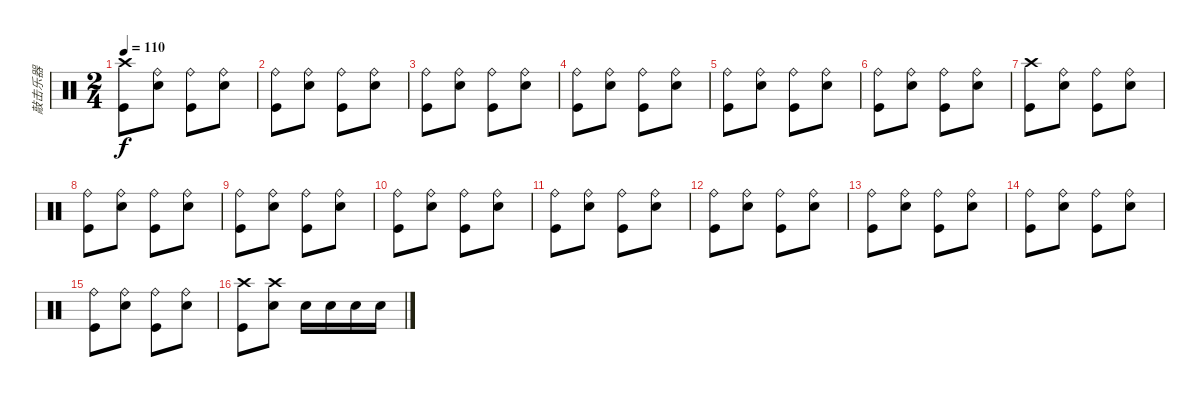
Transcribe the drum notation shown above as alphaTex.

\track ("敲击乐器" "敲击乐器") {instrument percussion}
\staff {score}
\articulation defaults
\ts (2 4)
\tempo 110
\clef neutral
\ks c
("Crash high (hit)" "Kick (hit)").8{dy f} ("Ride (bell)" "Snare (hit) 2").8 ("Ride (bell)" "Kick (hit)").8 ("Ride (bell)" "Snare (hit) 2").8 |
("Ride (bell)" "Kick (hit)").8 ("Ride (bell)" "Snare (hit) 2").8 ("Ride (bell)" "Kick (hit)").8 ("Ride (bell)" "Snare (hit) 2").8 |
("Ride (bell)" "Kick (hit)").8 ("Ride (bell)" "Snare (hit) 2").8 ("Ride (bell)" "Kick (hit)").8 ("Ride (bell)" "Snare (hit) 2").8 |
("Ride (bell)" "Kick (hit)").8 ("Ride (bell)" "Snare (hit) 2").8 ("Ride (bell)" "Kick (hit)").8 ("Ride (bell)" "Snare (hit) 2").8 |
("Ride (bell)" "Kick (hit)").8 ("Ride (bell)" "Snare (hit) 2").8 ("Ride (bell)" "Kick (hit)").8 ("Ride (bell)" "Snare (hit) 2").8 |
("Ride (bell)" "Kick (hit)").8 ("Ride (bell)" "Snare (hit) 2").8 ("Ride (bell)" "Kick (hit)").8 ("Ride (bell)" "Snare (hit) 2").8 |
("Crash high (hit)" "Kick (hit)").8 ("Ride (bell)" "Snare (hit) 2").8 ("Ride (bell)" "Kick (hit)").8 ("Ride (bell)" "Snare (hit) 2").8 |
("Ride (bell)" "Kick (hit)").8 ("Ride (bell)" "Snare (hit) 2").8 ("Ride (bell)" "Kick (hit)").8 ("Ride (bell)" "Snare (hit) 2").8 |
("Ride (bell)" "Kick (hit)").8 ("Ride (bell)" "Snare (hit) 2").8 ("Ride (bell)" "Kick (hit)").8 ("Ride (bell)" "Snare (hit) 2").8 |
("Ride (bell)" "Kick (hit)").8 ("Ride (bell)" "Snare (hit) 2").8 ("Ride (bell)" "Kick (hit)").8 ("Ride (bell)" "Snare (hit) 2").8 |
("Ride (bell)" "Kick (hit)").8 ("Ride (bell)" "Snare (hit) 2").8 ("Ride (bell)" "Kick (hit)").8 ("Ride (bell)" "Snare (hit) 2").8 |
("Ride (bell)" "Kick (hit)").8 ("Ride (bell)" "Snare (hit) 2").8 ("Ride (bell)" "Kick (hit)").8 ("Ride (bell)" "Snare (hit) 2").8 |
("Ride (bell)" "Kick (hit)").8 ("Ride (bell)" "Snare (hit) 2").8 ("Ride (bell)" "Kick (hit)").8 ("Ride (bell)" "Snare (hit) 2").8 |
("Ride (bell)" "Kick (hit)").8 ("Ride (bell)" "Snare (hit) 2").8 ("Ride (bell)" "Kick (hit)").8 ("Ride (bell)" "Snare (hit) 2").8 |
("Ride (bell)" "Kick (hit)").8 ("Ride (bell)" "Snare (hit) 2").8 ("Ride (bell)" "Kick (hit)").8 ("Ride (bell)" "Snare (hit) 2").8 |
("Crash high (hit)" "Kick (hit)").8 ("Crash high (hit)" "Snare (hit) 2").8 "Snare (hit) 2".16 "Snare (hit) 2".16 "Snare (hit) 2".16 "Snare (hit) 2".16
